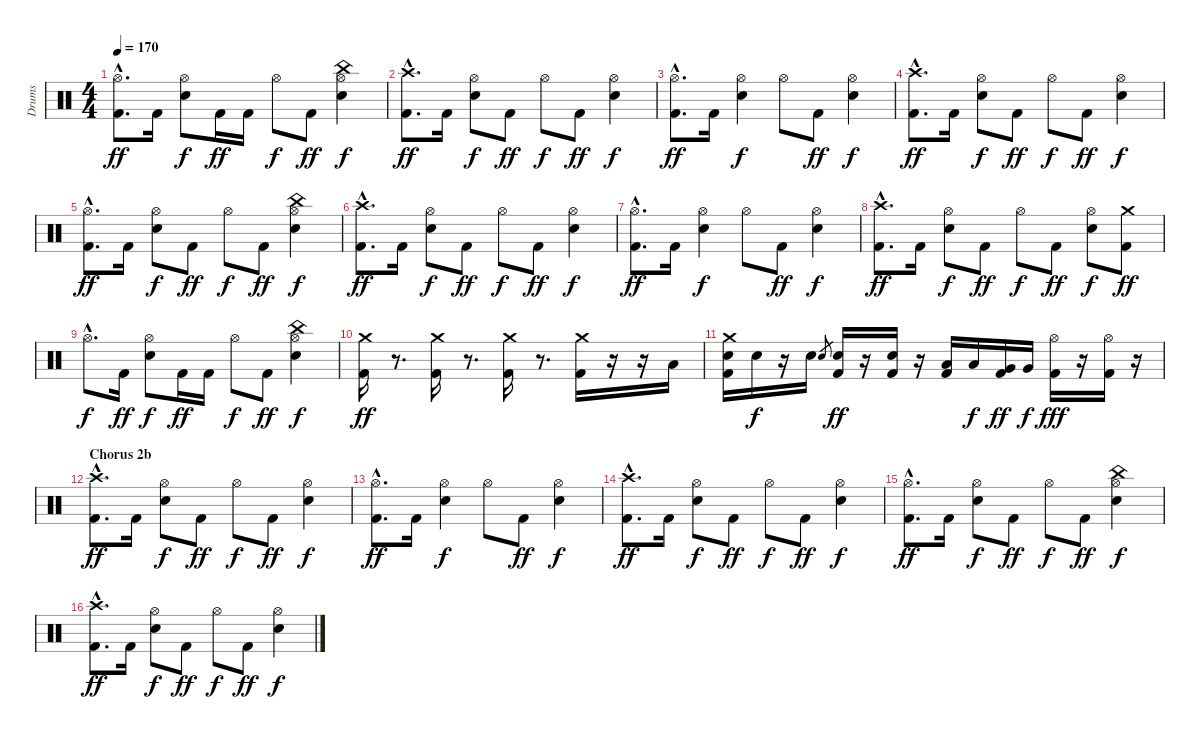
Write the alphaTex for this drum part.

\track ("Drums" "Drums") {instrument percussion}
\staff {score}
\articulation defaults
\ts (4 4)
\tempo 170
\clef neutral
\ks c
("Hi-Hat (open)"{hac} "Kick (hit) 2"{hac}).8{d dy ff} "Kick (hit) 2".16 ("Hi-Hat (open)" "Snare (hit) 2").8{dy f} "Kick (hit) 2".16{dy ff} "Kick (hit) 2".16 "Hi-Hat (open)".8{dy f} "Kick (hit) 2".8{dy ff} ("China (hit)" "Hi-Hat (open)" "Snare (hit) 2").4{dy f} |
("Crash high (hit)"{hac} "Kick (hit) 2"{hac}).8{d dy ff} "Kick (hit) 2".16 ("Hi-Hat (open)" "Snare (hit) 2").8{dy f} "Kick (hit) 2".8{dy ff} "Hi-Hat (open)".8{dy f} "Kick (hit) 2".8{dy ff} ("Hi-Hat (open)" "Snare (hit) 2").4{dy f} |
("Hi-Hat (open)"{hac} "Kick (hit) 2"{hac}).8{d dy ff} "Kick (hit) 2".16 ("Hi-Hat (open)" "Snare (hit) 2").4{dy f} "Hi-Hat (open)".8 "Kick (hit) 2".8{dy ff} ("Hi-Hat (open)" "Snare (hit) 2").4{dy f} |
("Crash high (hit)"{hac} "Kick (hit) 2"{hac}).8{d dy ff} "Kick (hit) 2".16 ("Hi-Hat (open)" "Snare (hit) 2").8{dy f} "Kick (hit) 2".8{dy ff} "Hi-Hat (open)".8{dy f} "Kick (hit) 2".8{dy ff} ("Hi-Hat (open)" "Snare (hit) 2").4{dy f} |
("Hi-Hat (open)"{hac} "Kick (hit) 2"{hac}).8{d dy ff} "Kick (hit) 2".16 ("Hi-Hat (open)" "Snare (hit) 2").8{dy f} "Kick (hit) 2".8{dy ff} "Hi-Hat (open)".8{dy f} "Kick (hit) 2".8{dy ff} ("China (hit)" "Hi-Hat (open)" "Snare (hit) 2").4{dy f} |
("Crash high (hit)"{hac} "Kick (hit) 2"{hac}).8{d dy ff} "Kick (hit) 2".16 ("Hi-Hat (open)" "Snare (hit) 2").8{dy f} "Kick (hit) 2".8{dy ff} "Hi-Hat (open)".8{dy f} "Kick (hit) 2".8{dy ff} ("Hi-Hat (open)" "Snare (hit) 2").4{dy f} |
("Hi-Hat (open)"{hac} "Kick (hit) 2"{hac}).8{d dy ff} "Kick (hit) 2".16 ("Hi-Hat (open)" "Snare (hit) 2").4{dy f} "Hi-Hat (open)".8 "Kick (hit) 2".8{dy ff} ("Hi-Hat (open)" "Snare (hit) 2").4{dy f} |
("Crash high (hit)"{hac} "Kick (hit) 2"{hac}).8{d dy ff} "Kick (hit) 2".16 ("Hi-Hat (open)" "Snare (hit) 2").8{dy f} "Kick (hit) 2".8{dy ff} "Hi-Hat (open)".8{dy f} "Kick (hit) 2".8{dy ff} ("Hi-Hat (open)" "Snare (hit) 2").8{dy f} ("Crash medium (hit)" "Kick (hit) 2").8{dy ff} |
"Hi-Hat (open)"{hac}.8{d dy f} "Kick (hit) 2".16{dy ff} ("Hi-Hat (open)" "Snare (hit) 2").8{dy f} "Kick (hit) 2".16{dy ff} "Kick (hit) 2".16 "Hi-Hat (open)".8{dy f} "Kick (hit) 2".8{dy ff} ("China (hit)" "Hi-Hat (open)" "Snare (hit) 2").4{dy f} |
("Crash medium (hit)" "Kick (hit) 2").16{dy ff} r.8{d} ("Crash medium (hit)" "Kick (hit) 2").16 r.8{d} ("Crash medium (hit)" "Kick (hit) 2").16 r.8{d} ("Crash medium (hit)" "Kick (hit) 2").16 r.16 r.16 "Low Floor Tom (hit)".16 |
("Crash medium (hit)" "Snare (hit) 2" "Kick (hit) 2").16 "Snare (hit) 2".16{dy f} r.16 "Snare (hit) 2".16 "Snare (hit) 2".8{gr} ("Snare (hit) 2" "Kick (hit) 2").16{dy ff} r.16 ("Snare (hit) 2" "Kick (hit) 2").16 r.16 ("Low Tom (hit)" "Kick (hit) 2").16 "Low Tom (hit)".16{dy f} ("Very Low Tom (hit)" "Kick (hit) 2").16{dy ff} "Very Low Tom (hit)".16{dy f} ("Hi-Hat (open)" "Kick (hit) 2").16{dy fff} r.16 ("Hi-Hat (open)" "Kick (hit) 2").16 r.16 |
\section ("" "Chorus 2b")
("Crash high (hit)"{hac} "Kick (hit) 2"{hac}).8{d dy ff} "Kick (hit) 2".16 ("Hi-Hat (open)" "Snare (hit) 2").8{dy f} "Kick (hit) 2".8{dy ff} "Hi-Hat (open)".8{dy f} "Kick (hit) 2".8{dy ff} ("Hi-Hat (open)" "Snare (hit) 2").4{dy f} |
("Hi-Hat (open)"{hac} "Kick (hit) 2"{hac}).8{d dy ff} "Kick (hit) 2".16 ("Hi-Hat (open)" "Snare (hit) 2").4{dy f} "Hi-Hat (open)".8 "Kick (hit) 2".8{dy ff} ("Hi-Hat (open)" "Snare (hit) 2").4{dy f} |
("Crash high (hit)"{hac} "Kick (hit) 2"{hac}).8{d dy ff} "Kick (hit) 2".16 ("Hi-Hat (open)" "Snare (hit) 2").8{dy f} "Kick (hit) 2".8{dy ff} "Hi-Hat (open)".8{dy f} "Kick (hit) 2".8{dy ff} ("Hi-Hat (open)" "Snare (hit) 2").4{dy f} |
("Hi-Hat (open)"{hac} "Kick (hit) 2"{hac}).8{d dy ff} "Kick (hit) 2".16 ("Hi-Hat (open)" "Snare (hit) 2").8{dy f} "Kick (hit) 2".8{dy ff} "Hi-Hat (open)".8{dy f} "Kick (hit) 2".8{dy ff} ("China (hit)" "Hi-Hat (open)" "Snare (hit) 2").4{dy f} |
("Crash high (hit)"{hac} "Kick (hit) 2"{hac}).8{d dy ff} "Kick (hit) 2".16 ("Hi-Hat (open)" "Snare (hit) 2").8{dy f} "Kick (hit) 2".8{dy ff} "Hi-Hat (open)".8{dy f} "Kick (hit) 2".8{dy ff} ("Hi-Hat (open)" "Snare (hit) 2").4{dy f}
